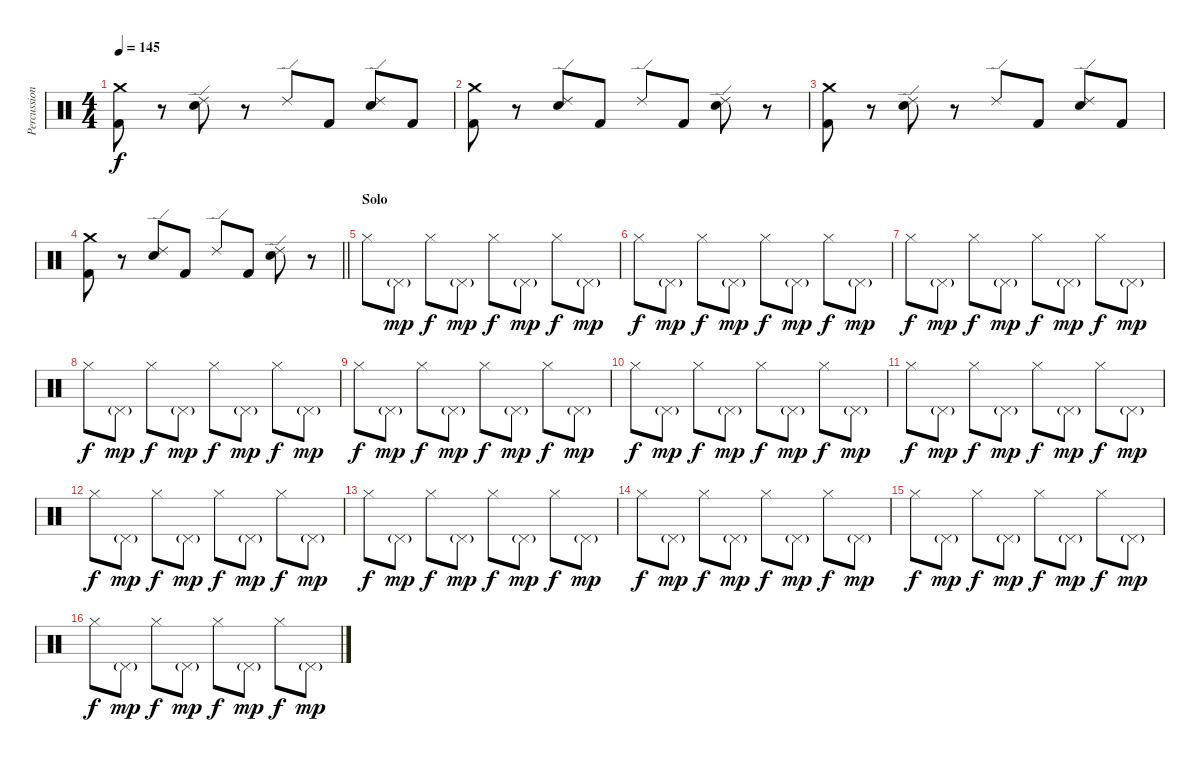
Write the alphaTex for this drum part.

\track ("Percussion" "Percussion") {instrument percussion}
\staff {score}
\articulation defaults
\ts (4 4)
\tempo 145
\clef neutral
\ks c
("Crash medium (hit)" "Kick (hit) 2").8{dy f} r.8 ("Ride (edge) 2" "Electric Snare (hit)").8 r.8 "Ride (edge) 2".8 "Kick (hit) 2".8 ("Ride (edge) 2" "Electric Snare (hit)").8 "Kick (hit) 2".8 |
("Crash medium (hit)" "Kick (hit) 2").8 r.8 ("Ride (edge) 2" "Electric Snare (hit)").8 "Kick (hit) 2".8 "Ride (edge) 2".8 "Kick (hit) 2".8 ("Ride (edge) 2" "Electric Snare (hit)").8 r.8 |
("Crash medium (hit)" "Kick (hit) 2").8 r.8 ("Ride (edge) 2" "Electric Snare (hit)").8 r.8 "Ride (edge) 2".8 "Kick (hit) 2".8 ("Ride (edge) 2" "Electric Snare (hit)").8 "Kick (hit) 2".8 |
\barLineRight lightlight
("Crash medium (hit)" "Kick (hit) 2").8 r.8 ("Ride (edge) 2" "Electric Snare (hit)").8 "Kick (hit) 2".8 "Ride (edge) 2".8 "Kick (hit) 2".8 ("Ride (edge) 2" "Electric Snare (hit)").8 r.8 |
\section ("" "Solo")
"Hi-Hat (closed)".8 "Pedal Hi-Hat (hit)"{g}.8{dy mp} "Hi-Hat (closed)".8{dy f} "Pedal Hi-Hat (hit)"{g}.8{dy mp} "Hi-Hat (closed)".8{dy f} "Pedal Hi-Hat (hit)"{g}.8{dy mp} "Hi-Hat (closed)".8{dy f} "Pedal Hi-Hat (hit)"{g}.8{dy mp} |
"Hi-Hat (closed)".8{dy f} "Pedal Hi-Hat (hit)"{g}.8{dy mp} "Hi-Hat (closed)".8{dy f} "Pedal Hi-Hat (hit)"{g}.8{dy mp} "Hi-Hat (closed)".8{dy f} "Pedal Hi-Hat (hit)"{g}.8{dy mp} "Hi-Hat (closed)".8{dy f} "Pedal Hi-Hat (hit)"{g}.8{dy mp} |
"Hi-Hat (closed)".8{dy f} "Pedal Hi-Hat (hit)"{g}.8{dy mp} "Hi-Hat (closed)".8{dy f} "Pedal Hi-Hat (hit)"{g}.8{dy mp} "Hi-Hat (closed)".8{dy f} "Pedal Hi-Hat (hit)"{g}.8{dy mp} "Hi-Hat (closed)".8{dy f} "Pedal Hi-Hat (hit)"{g}.8{dy mp} |
"Hi-Hat (closed)".8{dy f} "Pedal Hi-Hat (hit)"{g}.8{dy mp} "Hi-Hat (closed)".8{dy f} "Pedal Hi-Hat (hit)"{g}.8{dy mp} "Hi-Hat (closed)".8{dy f} "Pedal Hi-Hat (hit)"{g}.8{dy mp} "Hi-Hat (closed)".8{dy f} "Pedal Hi-Hat (hit)"{g}.8{dy mp} |
"Hi-Hat (closed)".8{dy f} "Pedal Hi-Hat (hit)"{g}.8{dy mp} "Hi-Hat (closed)".8{dy f} "Pedal Hi-Hat (hit)"{g}.8{dy mp} "Hi-Hat (closed)".8{dy f} "Pedal Hi-Hat (hit)"{g}.8{dy mp} "Hi-Hat (closed)".8{dy f} "Pedal Hi-Hat (hit)"{g}.8{dy mp} |
"Hi-Hat (closed)".8{dy f} "Pedal Hi-Hat (hit)"{g}.8{dy mp} "Hi-Hat (closed)".8{dy f} "Pedal Hi-Hat (hit)"{g}.8{dy mp} "Hi-Hat (closed)".8{dy f} "Pedal Hi-Hat (hit)"{g}.8{dy mp} "Hi-Hat (closed)".8{dy f} "Pedal Hi-Hat (hit)"{g}.8{dy mp} |
"Hi-Hat (closed)".8{dy f} "Pedal Hi-Hat (hit)"{g}.8{dy mp} "Hi-Hat (closed)".8{dy f} "Pedal Hi-Hat (hit)"{g}.8{dy mp} "Hi-Hat (closed)".8{dy f} "Pedal Hi-Hat (hit)"{g}.8{dy mp} "Hi-Hat (closed)".8{dy f} "Pedal Hi-Hat (hit)"{g}.8{dy mp} |
"Hi-Hat (closed)".8{dy f} "Pedal Hi-Hat (hit)"{g}.8{dy mp} "Hi-Hat (closed)".8{dy f} "Pedal Hi-Hat (hit)"{g}.8{dy mp} "Hi-Hat (closed)".8{dy f} "Pedal Hi-Hat (hit)"{g}.8{dy mp} "Hi-Hat (closed)".8{dy f} "Pedal Hi-Hat (hit)"{g}.8{dy mp} |
"Hi-Hat (closed)".8{dy f} "Pedal Hi-Hat (hit)"{g}.8{dy mp} "Hi-Hat (closed)".8{dy f} "Pedal Hi-Hat (hit)"{g}.8{dy mp} "Hi-Hat (closed)".8{dy f} "Pedal Hi-Hat (hit)"{g}.8{dy mp} "Hi-Hat (closed)".8{dy f} "Pedal Hi-Hat (hit)"{g}.8{dy mp} |
"Hi-Hat (closed)".8{dy f} "Pedal Hi-Hat (hit)"{g}.8{dy mp} "Hi-Hat (closed)".8{dy f} "Pedal Hi-Hat (hit)"{g}.8{dy mp} "Hi-Hat (closed)".8{dy f} "Pedal Hi-Hat (hit)"{g}.8{dy mp} "Hi-Hat (closed)".8{dy f} "Pedal Hi-Hat (hit)"{g}.8{dy mp} |
"Hi-Hat (closed)".8{dy f} "Pedal Hi-Hat (hit)"{g}.8{dy mp} "Hi-Hat (closed)".8{dy f} "Pedal Hi-Hat (hit)"{g}.8{dy mp} "Hi-Hat (closed)".8{dy f} "Pedal Hi-Hat (hit)"{g}.8{dy mp} "Hi-Hat (closed)".8{dy f} "Pedal Hi-Hat (hit)"{g}.8{dy mp} |
"Hi-Hat (closed)".8{dy f} "Pedal Hi-Hat (hit)"{g}.8{dy mp} "Hi-Hat (closed)".8{dy f} "Pedal Hi-Hat (hit)"{g}.8{dy mp} "Hi-Hat (closed)".8{dy f} "Pedal Hi-Hat (hit)"{g}.8{dy mp} "Hi-Hat (closed)".8{dy f} "Pedal Hi-Hat (hit)"{g}.8{dy mp}
